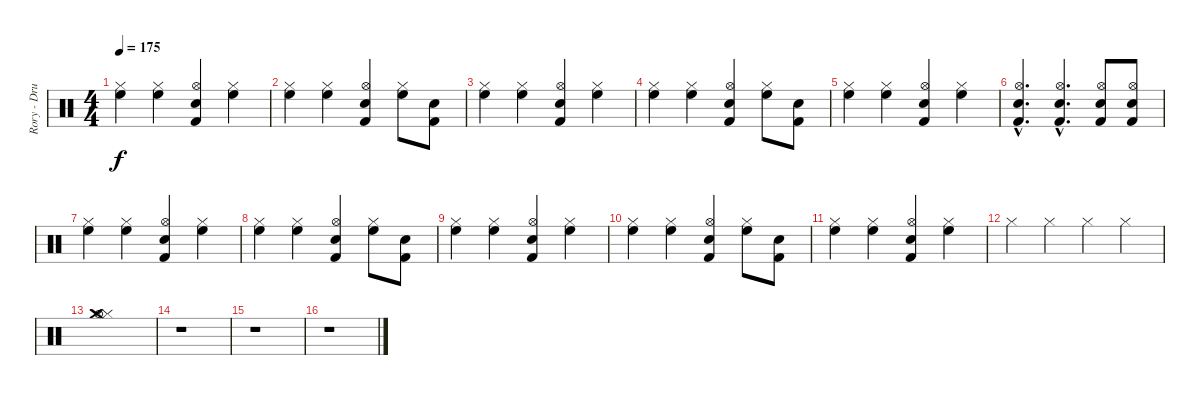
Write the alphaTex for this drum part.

\track ("Rory - Drums" "Rory - Dru") {instrument percussion}
\staff {score}
\articulation defaults
\ts (4 4)
\tempo 175
\clef neutral
\ks c
("Hi-Hat (closed)" "High Floor Tom (hit)").4{dy f} ("Hi-Hat (closed)" "High Floor Tom (hit)").4 ("Kick (hit) 2" "Hi-Hat (open)" "Snare (hit) 2").4 ("Hi-Hat (closed)" "High Floor Tom (hit)").4 |
("Hi-Hat (closed)" "High Floor Tom (hit)").4 ("Hi-Hat (closed)" "High Floor Tom (hit)").4 ("Kick (hit) 2" "Hi-Hat (open)" "Snare (hit) 2").4 ("Hi-Hat (closed)" "High Floor Tom (hit)").8 ("Kick (hit) 2" "Snare (hit) 2").8 |
("Hi-Hat (closed)" "High Floor Tom (hit)").4 ("Hi-Hat (closed)" "High Floor Tom (hit)").4 ("Kick (hit) 2" "Hi-Hat (open)" "Snare (hit) 2").4 ("Hi-Hat (closed)" "High Floor Tom (hit)").4 |
("Hi-Hat (closed)" "High Floor Tom (hit)").4 ("Hi-Hat (closed)" "High Floor Tom (hit)").4 ("Kick (hit) 2" "Hi-Hat (open)" "Snare (hit) 2").4 ("Hi-Hat (closed)" "High Floor Tom (hit)").8 ("Kick (hit) 2" "Snare (hit) 2").8 |
("Hi-Hat (closed)" "High Floor Tom (hit)").4 ("Hi-Hat (closed)" "High Floor Tom (hit)").4 ("Kick (hit) 2" "Hi-Hat (open)" "Snare (hit) 2").4 ("Hi-Hat (closed)" "High Floor Tom (hit)").4 |
("Kick (hit) 2"{hac} "Hi-Hat (open)"{hac} "Snare (hit) 2"{hac}).4{d} ("Kick (hit) 2"{hac} "Hi-Hat (open)"{hac} "Snare (hit) 2"{hac}).4{d} ("Kick (hit) 2" "Hi-Hat (open)" "Snare (hit) 2").8 ("Kick (hit) 2" "Hi-Hat (open)" "Snare (hit) 2").8 |
("Hi-Hat (closed)" "High Floor Tom (hit)").4 ("Hi-Hat (closed)" "High Floor Tom (hit)").4 ("Kick (hit) 2" "Hi-Hat (open)" "Snare (hit) 2").4 ("Hi-Hat (closed)" "High Floor Tom (hit)").4 |
("Hi-Hat (closed)" "High Floor Tom (hit)").4 ("Hi-Hat (closed)" "High Floor Tom (hit)").4 ("Kick (hit) 2" "Hi-Hat (open)" "Snare (hit) 2").4 ("Hi-Hat (closed)" "High Floor Tom (hit)").8 ("Kick (hit) 2" "Snare (hit) 2").8 |
("Hi-Hat (closed)" "High Floor Tom (hit)").4 ("Hi-Hat (closed)" "High Floor Tom (hit)").4 ("Kick (hit) 2" "Hi-Hat (open)" "Snare (hit) 2").4 ("Hi-Hat (closed)" "High Floor Tom (hit)").4 |
("Hi-Hat (closed)" "High Floor Tom (hit)").4 ("Hi-Hat (closed)" "High Floor Tom (hit)").4 ("Kick (hit) 2" "Hi-Hat (open)" "Snare (hit) 2").4 ("Hi-Hat (closed)" "High Floor Tom (hit)").8 ("Kick (hit) 2" "Snare (hit) 2").8 |
("Hi-Hat (closed)" "High Floor Tom (hit)").4 ("Hi-Hat (closed)" "High Floor Tom (hit)").4 ("Kick (hit) 2" "Hi-Hat (open)" "Snare (hit) 2").4 ("Hi-Hat (closed)" "High Floor Tom (hit)").4 |
"Hi-Hat (closed)".4 "Hi-Hat (closed)".4 "Hi-Hat (closed)".4 "Hi-Hat (closed)".4 |
("Hi-Hat (closed)" "Hi-Hat (open)" "Crash medium (hit)").1 |
r.1 |
r.1 |
r.1
